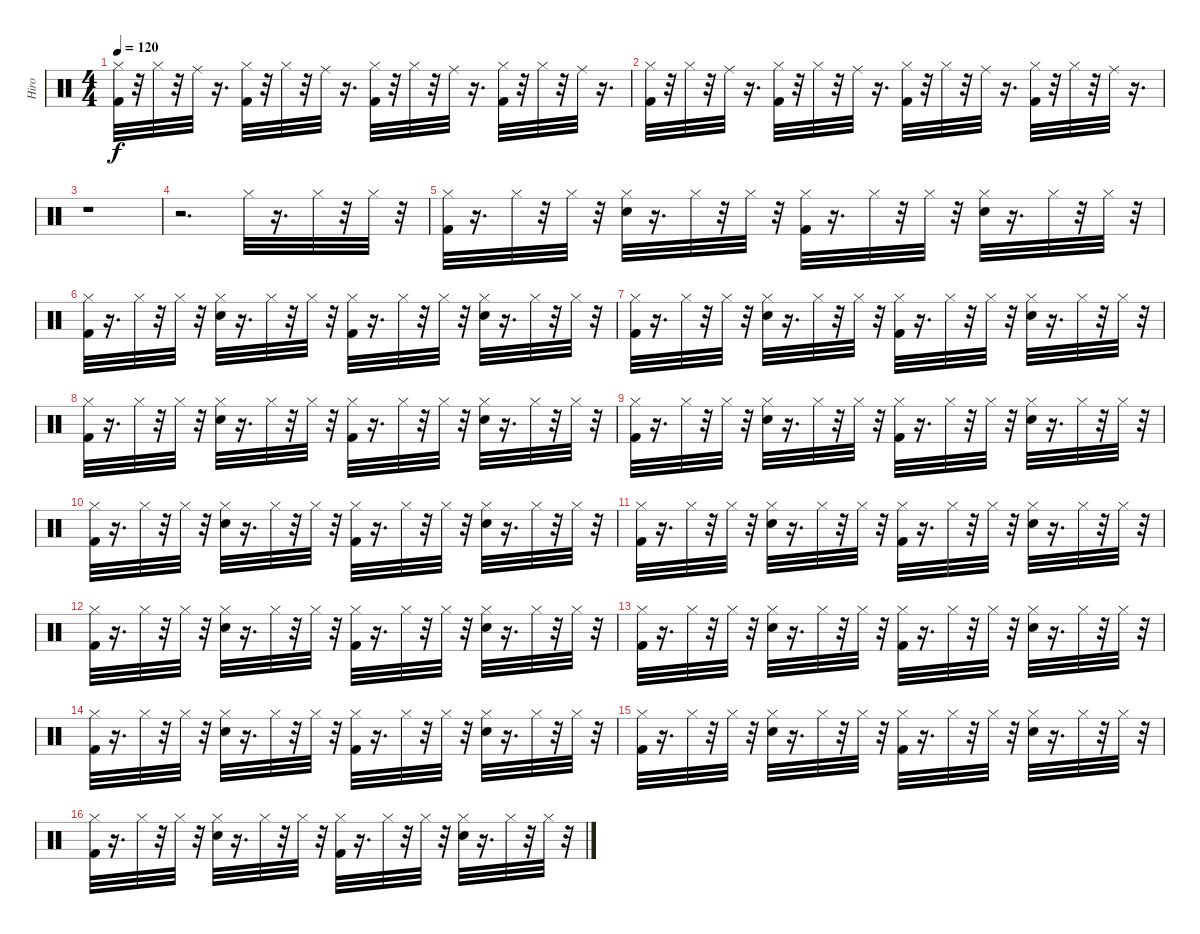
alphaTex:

\track ("Hiro" "Hiro") {instrument percussion}
\staff {score}
\articulation defaults
\ts (4 4)
\tempo 120
\clef neutral
\ks c
("Kick (hit) 2" "Hi-Hat (closed)").32{dy f} r.32 "Hi-Hat (closed)".32 r.32 "Ride (middle)".32 r.16{d} ("Kick (hit) 2" "Hi-Hat (closed)").32 r.32 "Hi-Hat (closed)".32 r.32 "Ride (middle)".32 r.16{d} ("Kick (hit) 2" "Hi-Hat (closed)").32 r.32 "Hi-Hat (closed)".32 r.32 "Ride (middle)".32 r.16{d} ("Kick (hit) 2" "Hi-Hat (closed)").32 r.32 "Hi-Hat (closed)".32 r.32 "Ride (middle)".32 r.16{d} |
("Kick (hit) 2" "Hi-Hat (closed)").32 r.32 "Hi-Hat (closed)".32 r.32 "Ride (middle)".32 r.16{d} ("Kick (hit) 2" "Hi-Hat (closed)").32 r.32 "Hi-Hat (closed)".32 r.32 "Ride (middle)".32 r.16{d} ("Kick (hit) 2" "Hi-Hat (closed)").32 r.32 "Hi-Hat (closed)".32 r.32 "Ride (middle)".32 r.16{d} ("Kick (hit) 2" "Hi-Hat (closed)").32 r.32 "Hi-Hat (closed)".32 r.32 "Ride (middle)".32 r.16{d} |
r.1 |
r.2{d} "Hi-Hat (closed)".32 r.16{d} "Hi-Hat (closed)".32 r.32 "Hi-Hat (closed)".32 r.32 |
("Kick (hit) 2" "Hi-Hat (closed)").32 r.16{d} "Hi-Hat (closed)".32 r.32 "Hi-Hat (closed)".32 r.32 ("Hi-Hat (closed)" "Snare (hit) 2").32 r.16{d} "Hi-Hat (closed)".32 r.32 "Hi-Hat (closed)".32 r.32 ("Hi-Hat (closed)" "Kick (hit) 2").32 r.16{d} "Hi-Hat (closed)".32 r.32 "Hi-Hat (closed)".32 r.32 ("Hi-Hat (closed)" "Snare (hit) 2").32 r.16{d} "Hi-Hat (closed)".32 r.32 "Hi-Hat (closed)".32 r.32 |
("Kick (hit) 2" "Hi-Hat (closed)").32 r.16{d} "Hi-Hat (closed)".32 r.32 "Hi-Hat (closed)".32 r.32 ("Hi-Hat (closed)" "Snare (hit) 2").32 r.16{d} "Hi-Hat (closed)".32 r.32 "Hi-Hat (closed)".32 r.32 ("Hi-Hat (closed)" "Kick (hit) 2").32 r.16{d} "Hi-Hat (closed)".32 r.32 "Hi-Hat (closed)".32 r.32 ("Hi-Hat (closed)" "Snare (hit) 2").32 r.16{d} "Hi-Hat (closed)".32 r.32 "Hi-Hat (closed)".32 r.32 |
("Kick (hit) 2" "Hi-Hat (closed)").32 r.16{d} "Hi-Hat (closed)".32 r.32 "Hi-Hat (closed)".32 r.32 ("Hi-Hat (closed)" "Snare (hit) 2").32 r.16{d} "Hi-Hat (closed)".32 r.32 "Hi-Hat (closed)".32 r.32 ("Hi-Hat (closed)" "Kick (hit) 2").32 r.16{d} "Hi-Hat (closed)".32 r.32 "Hi-Hat (closed)".32 r.32 ("Hi-Hat (closed)" "Snare (hit) 2").32 r.16{d} "Hi-Hat (closed)".32 r.32 "Hi-Hat (closed)".32 r.32 |
("Kick (hit) 2" "Hi-Hat (closed)").32 r.16{d} "Hi-Hat (closed)".32 r.32 "Hi-Hat (closed)".32 r.32 ("Hi-Hat (closed)" "Snare (hit) 2").32 r.16{d} "Hi-Hat (closed)".32 r.32 "Hi-Hat (closed)".32 r.32 ("Hi-Hat (closed)" "Kick (hit) 2").32 r.16{d} "Hi-Hat (closed)".32 r.32 "Hi-Hat (closed)".32 r.32 ("Hi-Hat (closed)" "Snare (hit) 2").32 r.16{d} "Hi-Hat (closed)".32 r.32 "Hi-Hat (closed)".32 r.32 |
("Kick (hit) 2" "Hi-Hat (closed)").32 r.16{d} "Hi-Hat (closed)".32 r.32 "Hi-Hat (closed)".32 r.32 ("Hi-Hat (closed)" "Snare (hit) 2").32 r.16{d} "Hi-Hat (closed)".32 r.32 "Hi-Hat (closed)".32 r.32 ("Hi-Hat (closed)" "Kick (hit) 2").32 r.16{d} "Hi-Hat (closed)".32 r.32 "Hi-Hat (closed)".32 r.32 ("Hi-Hat (closed)" "Snare (hit) 2").32 r.16{d} "Hi-Hat (closed)".32 r.32 "Hi-Hat (closed)".32 r.32 |
("Kick (hit) 2" "Hi-Hat (closed)").32 r.16{d} "Hi-Hat (closed)".32 r.32 "Hi-Hat (closed)".32 r.32 ("Hi-Hat (closed)" "Snare (hit) 2").32 r.16{d} "Hi-Hat (closed)".32 r.32 "Hi-Hat (closed)".32 r.32 ("Hi-Hat (closed)" "Kick (hit) 2").32 r.16{d} "Hi-Hat (closed)".32 r.32 "Hi-Hat (closed)".32 r.32 ("Hi-Hat (closed)" "Snare (hit) 2").32 r.16{d} "Hi-Hat (closed)".32 r.32 "Hi-Hat (closed)".32 r.32 |
("Kick (hit) 2" "Hi-Hat (closed)").32 r.16{d} "Hi-Hat (closed)".32 r.32 "Hi-Hat (closed)".32 r.32 ("Hi-Hat (closed)" "Snare (hit) 2").32 r.16{d} "Hi-Hat (closed)".32 r.32 "Hi-Hat (closed)".32 r.32 ("Hi-Hat (closed)" "Kick (hit) 2").32 r.16{d} "Hi-Hat (closed)".32 r.32 "Hi-Hat (closed)".32 r.32 ("Hi-Hat (closed)" "Snare (hit) 2").32 r.16{d} "Hi-Hat (closed)".32 r.32 "Hi-Hat (closed)".32 r.32 |
("Kick (hit) 2" "Hi-Hat (closed)").32 r.16{d} "Hi-Hat (closed)".32 r.32 "Hi-Hat (closed)".32 r.32 ("Hi-Hat (closed)" "Snare (hit) 2").32 r.16{d} "Hi-Hat (closed)".32 r.32 "Hi-Hat (closed)".32 r.32 ("Hi-Hat (closed)" "Kick (hit) 2").32 r.16{d} "Hi-Hat (closed)".32 r.32 "Hi-Hat (closed)".32 r.32 ("Hi-Hat (closed)" "Snare (hit) 2").32 r.16{d} "Hi-Hat (closed)".32 r.32 "Hi-Hat (closed)".32 r.32 |
("Kick (hit) 2" "Hi-Hat (closed)").32 r.16{d} "Hi-Hat (closed)".32 r.32 "Hi-Hat (closed)".32 r.32 ("Hi-Hat (closed)" "Snare (hit) 2").32 r.16{d} "Hi-Hat (closed)".32 r.32 "Hi-Hat (closed)".32 r.32 ("Hi-Hat (closed)" "Kick (hit) 2").32 r.16{d} "Hi-Hat (closed)".32 r.32 "Hi-Hat (closed)".32 r.32 ("Hi-Hat (closed)" "Snare (hit) 2").32 r.16{d} "Hi-Hat (closed)".32 r.32 "Hi-Hat (closed)".32 r.32 |
("Kick (hit) 2" "Hi-Hat (closed)").32 r.16{d} "Hi-Hat (closed)".32 r.32 "Hi-Hat (closed)".32 r.32 ("Hi-Hat (closed)" "Snare (hit) 2").32 r.16{d} "Hi-Hat (closed)".32 r.32 "Hi-Hat (closed)".32 r.32 ("Hi-Hat (closed)" "Kick (hit) 2").32 r.16{d} "Hi-Hat (closed)".32 r.32 "Hi-Hat (closed)".32 r.32 ("Hi-Hat (closed)" "Snare (hit) 2").32 r.16{d} "Hi-Hat (closed)".32 r.32 "Hi-Hat (closed)".32 r.32 |
("Kick (hit) 2" "Hi-Hat (closed)").32 r.16{d} "Hi-Hat (closed)".32 r.32 "Hi-Hat (closed)".32 r.32 ("Hi-Hat (closed)" "Snare (hit) 2").32 r.16{d} "Hi-Hat (closed)".32 r.32 "Hi-Hat (closed)".32 r.32 ("Hi-Hat (closed)" "Kick (hit) 2").32 r.16{d} "Hi-Hat (closed)".32 r.32 "Hi-Hat (closed)".32 r.32 ("Hi-Hat (closed)" "Snare (hit) 2").32 r.16{d} "Hi-Hat (closed)".32 r.32 "Hi-Hat (closed)".32 r.32 |
("Kick (hit) 2" "Hi-Hat (closed)").32 r.16{d} "Hi-Hat (closed)".32 r.32 "Hi-Hat (closed)".32 r.32 ("Hi-Hat (closed)" "Snare (hit) 2").32 r.16{d} "Hi-Hat (closed)".32 r.32 "Hi-Hat (closed)".32 r.32 ("Hi-Hat (closed)" "Kick (hit) 2").32 r.16{d} "Hi-Hat (closed)".32 r.32 "Hi-Hat (closed)".32 r.32 ("Hi-Hat (closed)" "Snare (hit) 2").32 r.16{d} "Hi-Hat (closed)".32 r.32 "Hi-Hat (closed)".32 r.32
